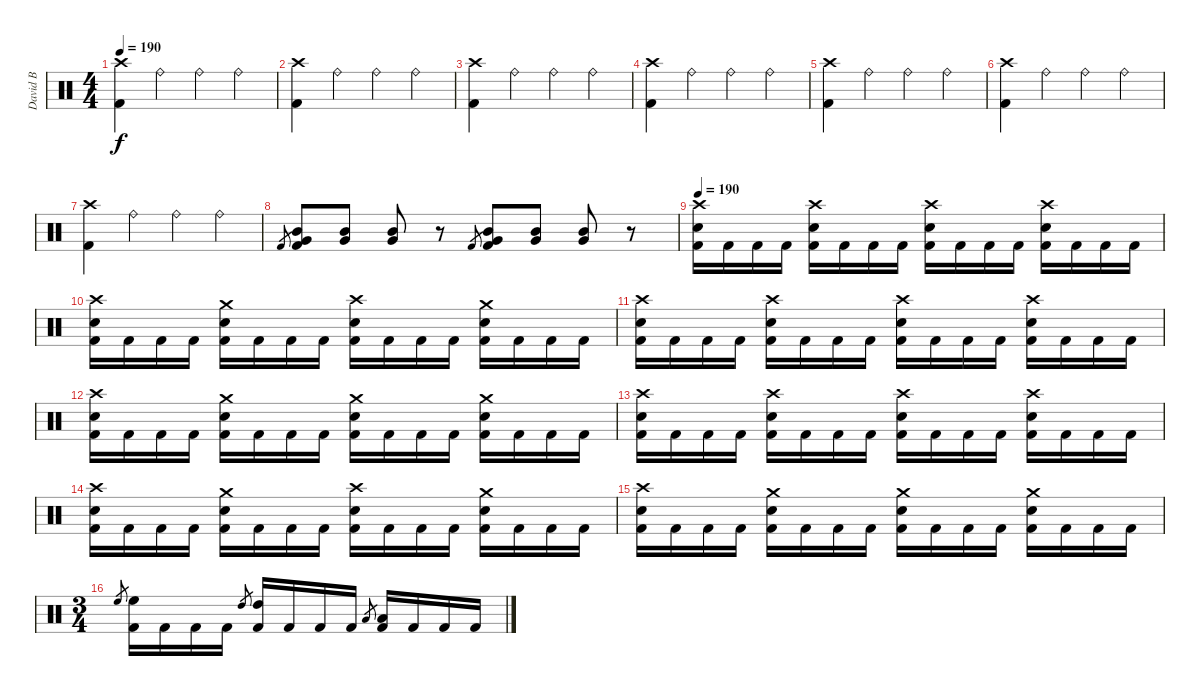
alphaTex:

\track ("David B" "David B") {instrument percussion}
\staff {score}
\articulation defaults
\ts (4 4)
\tempo 190
\tempo 160
\tempo 190
\clef neutral
\ks c
("Crash high (hit)" "Kick (hit) 2").4{dy f} "Ride (bell)".4 "Ride (bell)".4 "Ride (bell)".4 |
("Crash high (hit)" "Kick (hit) 2").4 "Ride (bell)".4 "Ride (bell)".4 "Ride (bell)".4 |
("Crash high (hit)" "Kick (hit) 2").4 "Ride (bell)".4 "Ride (bell)".4 "Ride (bell)".4 |
("Crash high (hit)" "Kick (hit) 2").4 "Ride (bell)".4 "Ride (bell)".4 "Ride (bell)".4 |
("Crash high (hit)" "Kick (hit) 2").4 "Ride (bell)".4 "Ride (bell)".4 "Ride (bell)".4 |
("Crash high (hit)" "Kick (hit) 2").4 "Ride (bell)".4 "Ride (bell)".4 "Ride (bell)".4 |
("Crash high (hit)" "Kick (hit) 2").4 "Ride (bell)".4 "Ride (bell)".4 "Ride (bell)".4 |
"Kick (hit) 2".8{gr} ("Mid Tom (hit)" "Very Low Tom (hit)" "Kick (hit) 2").8 ("Mid Tom (hit)" "Very Low Tom (hit)").8 ("Mid Tom (hit)" "Very Low Tom (hit)").8 r.8 "Kick (hit) 2".8{gr} ("Mid Tom (hit)" "Very Low Tom (hit)" "Kick (hit) 2").8 ("Mid Tom (hit)" "Very Low Tom (hit)").8 ("Mid Tom (hit)" "Very Low Tom (hit)").8 r.8 |
\tempo 180
\tempo 190
("Crash high (hit)" "Electric Snare (hit)" "Kick (hit) 2").16 "Kick (hit) 2".16 "Kick (hit) 2".16 "Kick (hit) 2".16 ("Crash high (hit)" "Electric Snare (hit)" "Kick (hit) 2").16 "Kick (hit) 2".16 "Kick (hit) 2".16 "Kick (hit) 2".16 ("Crash high (hit)" "Electric Snare (hit)" "Kick (hit) 2").16 "Kick (hit) 2".16 "Kick (hit) 2".16 "Kick (hit) 2".16 ("Crash high (hit)" "Electric Snare (hit)" "Kick (hit) 2").16 "Kick (hit) 2".16 "Kick (hit) 2".16 "Kick (hit) 2".16 |
("Crash high (hit)" "Electric Snare (hit)" "Kick (hit) 2").16 "Kick (hit) 2".16 "Kick (hit) 2".16 "Kick (hit) 2".16 ("Crash medium (hit)" "Electric Snare (hit)" "Kick (hit) 2").16 "Kick (hit) 2".16 "Kick (hit) 2".16 "Kick (hit) 2".16 ("Crash high (hit)" "Electric Snare (hit)" "Kick (hit) 2").16 "Kick (hit) 2".16 "Kick (hit) 2".16 "Kick (hit) 2".16 ("Crash medium (hit)" "Electric Snare (hit)" "Kick (hit) 2").16 "Kick (hit) 2".16 "Kick (hit) 2".16 "Kick (hit) 2".16 |
("Crash high (hit)" "Electric Snare (hit)" "Kick (hit) 2").16 "Kick (hit) 2".16 "Kick (hit) 2".16 "Kick (hit) 2".16 ("Crash high (hit)" "Electric Snare (hit)" "Kick (hit) 2").16 "Kick (hit) 2".16 "Kick (hit) 2".16 "Kick (hit) 2".16 ("Crash high (hit)" "Electric Snare (hit)" "Kick (hit) 2").16 "Kick (hit) 2".16 "Kick (hit) 2".16 "Kick (hit) 2".16 ("Crash high (hit)" "Electric Snare (hit)" "Kick (hit) 2").16 "Kick (hit) 2".16 "Kick (hit) 2".16 "Kick (hit) 2".16 |
("Crash high (hit)" "Electric Snare (hit)" "Kick (hit) 2").16 "Kick (hit) 2".16 "Kick (hit) 2".16 "Kick (hit) 2".16 ("Crash medium (hit)" "Electric Snare (hit)" "Kick (hit) 2").16 "Kick (hit) 2".16 "Kick (hit) 2".16 "Kick (hit) 2".16 ("Crash medium (hit)" "Electric Snare (hit)" "Kick (hit) 2").16 "Kick (hit) 2".16 "Kick (hit) 2".16 "Kick (hit) 2".16 ("Crash medium (hit)" "Electric Snare (hit)" "Kick (hit) 2").16 "Kick (hit) 2".16 "Kick (hit) 2".16 "Kick (hit) 2".16 |
("Crash high (hit)" "Electric Snare (hit)" "Kick (hit) 2").16 "Kick (hit) 2".16 "Kick (hit) 2".16 "Kick (hit) 2".16 ("Crash high (hit)" "Electric Snare (hit)" "Kick (hit) 2").16 "Kick (hit) 2".16 "Kick (hit) 2".16 "Kick (hit) 2".16 ("Crash high (hit)" "Electric Snare (hit)" "Kick (hit) 2").16 "Kick (hit) 2".16 "Kick (hit) 2".16 "Kick (hit) 2".16 ("Crash high (hit)" "Electric Snare (hit)" "Kick (hit) 2").16 "Kick (hit) 2".16 "Kick (hit) 2".16 "Kick (hit) 2".16 |
("Crash high (hit)" "Electric Snare (hit)" "Kick (hit) 2").16 "Kick (hit) 2".16 "Kick (hit) 2".16 "Kick (hit) 2".16 ("Crash medium (hit)" "Electric Snare (hit)" "Kick (hit) 2").16 "Kick (hit) 2".16 "Kick (hit) 2".16 "Kick (hit) 2".16 ("Crash high (hit)" "Electric Snare (hit)" "Kick (hit) 2").16 "Kick (hit) 2".16 "Kick (hit) 2".16 "Kick (hit) 2".16 ("Crash medium (hit)" "Electric Snare (hit)" "Kick (hit) 2").16 "Kick (hit) 2".16 "Kick (hit) 2".16 "Kick (hit) 2".16 |
("Crash high (hit)" "Electric Snare (hit)" "Kick (hit) 2").16 "Kick (hit) 2".16 "Kick (hit) 2".16 "Kick (hit) 2".16 ("Crash medium (hit)" "Electric Snare (hit)" "Kick (hit) 2").16 "Kick (hit) 2".16 "Kick (hit) 2".16 "Kick (hit) 2".16 ("Crash medium (hit)" "Electric Snare (hit)" "Kick (hit) 2").16 "Kick (hit) 2".16 "Kick (hit) 2".16 "Kick (hit) 2".16 ("Crash medium (hit)" "Electric Snare (hit)" "Kick (hit) 2").16 "Kick (hit) 2".16 "Kick (hit) 2".16 "Kick (hit) 2".16 |
\ts (3 4)
"High Floor Tom (hit)".8{gr} ("High Floor Tom (hit)" "Kick (hit) 2").16 "Kick (hit) 2".16 "Kick (hit) 2".16 "Kick (hit) 2".16 "High Tom (hit)".8{gr} ("High Tom (hit)" "Kick (hit) 2").16 "Kick (hit) 2".16 "Kick (hit) 2".16 "Kick (hit) 2".16 "Low Tom (hit)".8{gr} ("Low Tom (hit)" "Kick (hit) 2").16 "Kick (hit) 2".16 "Kick (hit) 2".16 "Kick (hit) 2".16
